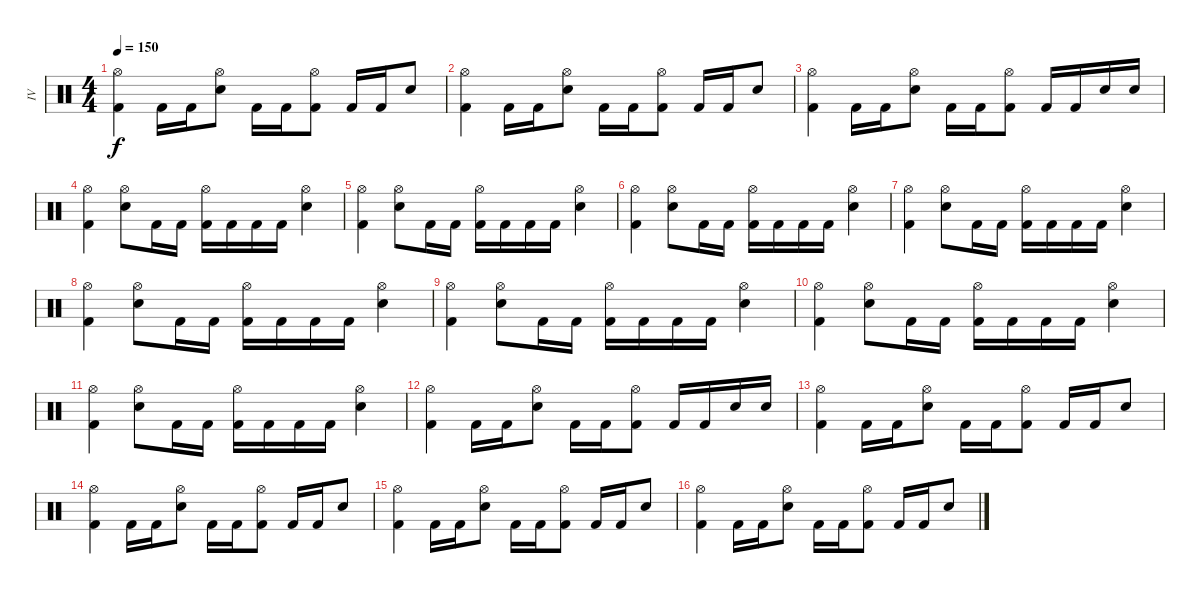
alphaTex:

\track ("IV" "IV") {instrument percussion}
\staff {score}
\articulation defaults
\ts (4 4)
\tempo 150
\clef neutral
\ks c
("Hi-Hat (open)" "Kick (hit) 2").4{dy f} "Kick (hit) 2".16 "Kick (hit) 2".16 ("Hi-Hat (open)" "Snare (hit) 2").8 "Kick (hit) 2".16 "Kick (hit) 2".16 ("Hi-Hat (open)" "Kick (hit) 2").8 "Kick (hit) 2".16 "Kick (hit) 2".16 "Snare (hit) 2".8 |
("Hi-Hat (open)" "Kick (hit) 2").4 "Kick (hit) 2".16 "Kick (hit) 2".16 ("Hi-Hat (open)" "Snare (hit) 2").8 "Kick (hit) 2".16 "Kick (hit) 2".16 ("Hi-Hat (open)" "Kick (hit) 2").8 "Kick (hit) 2".16 "Kick (hit) 2".16 "Snare (hit) 2".8 |
("Hi-Hat (open)" "Kick (hit) 2").4 "Kick (hit) 2".16 "Kick (hit) 2".16 ("Hi-Hat (open)" "Snare (hit) 2").8 "Kick (hit) 2".16 "Kick (hit) 2".16 ("Hi-Hat (open)" "Kick (hit) 2").8 "Kick (hit) 2".16 "Kick (hit) 2".16 "Snare (hit) 2".16 "Snare (hit) 2".16 |
("Hi-Hat (open)" "Kick (hit) 2").4 ("Hi-Hat (open)" "Snare (hit) 2").8 "Kick (hit) 2".16 "Kick (hit) 2".16 ("Hi-Hat (open)" "Kick (hit) 2").16 "Kick (hit) 2".16 "Kick (hit) 2".16 "Kick (hit) 2".16 ("Hi-Hat (open)" "Snare (hit) 2").4 |
("Hi-Hat (open)" "Kick (hit) 2").4 ("Hi-Hat (open)" "Snare (hit) 2").8 "Kick (hit) 2".16 "Kick (hit) 2".16 ("Hi-Hat (open)" "Kick (hit) 2").16 "Kick (hit) 2".16 "Kick (hit) 2".16 "Kick (hit) 2".16 ("Hi-Hat (open)" "Snare (hit) 2").4 |
("Hi-Hat (open)" "Kick (hit) 2").4 ("Hi-Hat (open)" "Snare (hit) 2").8 "Kick (hit) 2".16 "Kick (hit) 2".16 ("Hi-Hat (open)" "Kick (hit) 2").16 "Kick (hit) 2".16 "Kick (hit) 2".16 "Kick (hit) 2".16 ("Hi-Hat (open)" "Snare (hit) 2").4 |
("Hi-Hat (open)" "Kick (hit) 2").4 ("Hi-Hat (open)" "Snare (hit) 2").8 "Kick (hit) 2".16 "Kick (hit) 2".16 ("Hi-Hat (open)" "Kick (hit) 2").16 "Kick (hit) 2".16 "Kick (hit) 2".16 "Kick (hit) 2".16 ("Hi-Hat (open)" "Snare (hit) 2").4 |
("Hi-Hat (open)" "Kick (hit) 2").4 ("Hi-Hat (open)" "Snare (hit) 2").8 "Kick (hit) 2".16 "Kick (hit) 2".16 ("Hi-Hat (open)" "Kick (hit) 2").16 "Kick (hit) 2".16 "Kick (hit) 2".16 "Kick (hit) 2".16 ("Hi-Hat (open)" "Snare (hit) 2").4 |
("Hi-Hat (open)" "Kick (hit) 2").4 ("Hi-Hat (open)" "Snare (hit) 2").8 "Kick (hit) 2".16 "Kick (hit) 2".16 ("Hi-Hat (open)" "Kick (hit) 2").16 "Kick (hit) 2".16 "Kick (hit) 2".16 "Kick (hit) 2".16 ("Hi-Hat (open)" "Snare (hit) 2").4 |
("Hi-Hat (open)" "Kick (hit) 2").4 ("Hi-Hat (open)" "Snare (hit) 2").8 "Kick (hit) 2".16 "Kick (hit) 2".16 ("Hi-Hat (open)" "Kick (hit) 2").16 "Kick (hit) 2".16 "Kick (hit) 2".16 "Kick (hit) 2".16 ("Hi-Hat (open)" "Snare (hit) 2").4 |
("Hi-Hat (open)" "Kick (hit) 2").4 ("Hi-Hat (open)" "Snare (hit) 2").8 "Kick (hit) 2".16 "Kick (hit) 2".16 ("Hi-Hat (open)" "Kick (hit) 2").16 "Kick (hit) 2".16 "Kick (hit) 2".16 "Kick (hit) 2".16 ("Hi-Hat (open)" "Snare (hit) 2").4 |
("Hi-Hat (open)" "Kick (hit) 2").4 "Kick (hit) 2".16 "Kick (hit) 2".16 ("Hi-Hat (open)" "Snare (hit) 2").8 "Kick (hit) 2".16 "Kick (hit) 2".16 ("Hi-Hat (open)" "Kick (hit) 2").8 "Kick (hit) 2".16 "Kick (hit) 2".16 "Snare (hit) 2".16 "Snare (hit) 2".16 |
("Hi-Hat (open)" "Kick (hit) 2").4 "Kick (hit) 2".16 "Kick (hit) 2".16 ("Hi-Hat (open)" "Snare (hit) 2").8 "Kick (hit) 2".16 "Kick (hit) 2".16 ("Hi-Hat (open)" "Kick (hit) 2").8 "Kick (hit) 2".16 "Kick (hit) 2".16 "Snare (hit) 2".8 |
("Hi-Hat (open)" "Kick (hit) 2").4 "Kick (hit) 2".16 "Kick (hit) 2".16 ("Hi-Hat (open)" "Snare (hit) 2").8 "Kick (hit) 2".16 "Kick (hit) 2".16 ("Hi-Hat (open)" "Kick (hit) 2").8 "Kick (hit) 2".16 "Kick (hit) 2".16 "Snare (hit) 2".8 |
("Hi-Hat (open)" "Kick (hit) 2").4 "Kick (hit) 2".16 "Kick (hit) 2".16 ("Hi-Hat (open)" "Snare (hit) 2").8 "Kick (hit) 2".16 "Kick (hit) 2".16 ("Hi-Hat (open)" "Kick (hit) 2").8 "Kick (hit) 2".16 "Kick (hit) 2".16 "Snare (hit) 2".8 |
("Hi-Hat (open)" "Kick (hit) 2").4 "Kick (hit) 2".16 "Kick (hit) 2".16 ("Hi-Hat (open)" "Snare (hit) 2").8 "Kick (hit) 2".16 "Kick (hit) 2".16 ("Hi-Hat (open)" "Kick (hit) 2").8 "Kick (hit) 2".16 "Kick (hit) 2".16 "Snare (hit) 2".8
